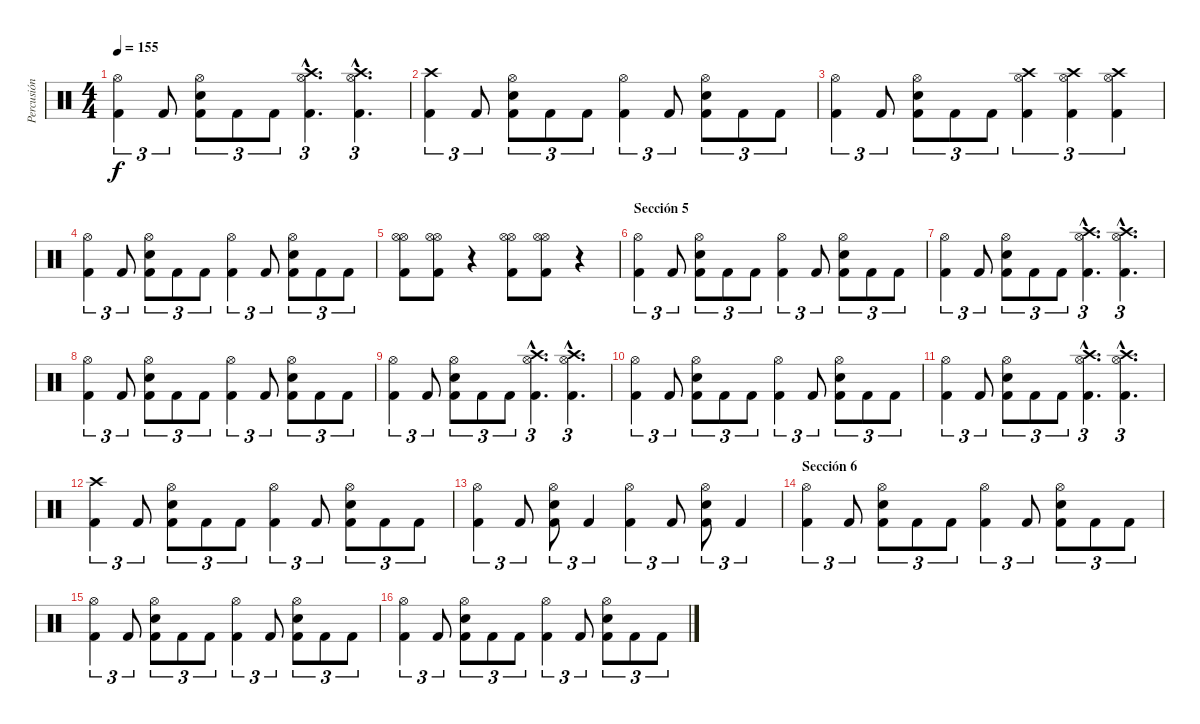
\track ("Percusión" "Percusión") {instrument percussion}
\staff {score}
\articulation defaults
\ts (4 4)
\tempo 155
\clef neutral
\ks c
("Hi-Hat (open)" "Kick (hit) 2").4{tu (3 2) dy f} "Kick (hit) 2".8{tu (3 2)} ("Hi-Hat (open)" "Electric Snare (hit)" "Kick (hit) 2").8{tu (3 2)} "Kick (hit) 2".8{tu (3 2)} "Kick (hit) 2".8{tu (3 2)} ("Hi-Hat (open)"{hac} "Crash high (hit)"{hac} "Kick (hit) 2"{hac}).4{d tu (3 2)} ("Hi-Hat (open)"{hac} "Crash high (hit)"{hac} "Kick (hit) 2"{hac}).4{d tu (3 2)} |
("Crash high (hit)" "Kick (hit) 2").4{tu (3 2)} "Kick (hit) 2".8{tu (3 2)} ("Hi-Hat (open)" "Electric Snare (hit)" "Kick (hit) 2").8{tu (3 2)} "Kick (hit) 2".8{tu (3 2)} "Kick (hit) 2".8{tu (3 2)} ("Hi-Hat (open)" "Kick (hit) 2").4{tu (3 2)} "Kick (hit) 2".8{tu (3 2)} ("Hi-Hat (open)" "Electric Snare (hit)" "Kick (hit) 2").8{tu (3 2)} "Kick (hit) 2".8{tu (3 2)} "Kick (hit) 2".8{tu (3 2)} |
("Hi-Hat (open)" "Kick (hit) 2").4{tu (3 2)} "Kick (hit) 2".8{tu (3 2)} ("Hi-Hat (open)" "Electric Snare (hit)" "Kick (hit) 2").8{tu (3 2)} "Kick (hit) 2".8{tu (3 2)} "Kick (hit) 2".8{tu (3 2)} ("Hi-Hat (open)" "Crash high (hit)" "Kick (hit) 2").4{tu (3 2)} ("Hi-Hat (open)" "Crash high (hit)" "Kick (hit) 2").4{tu (3 2)} ("Hi-Hat (open)" "Crash high (hit)" "Kick (hit) 2").4{tu (3 2)} |
("Hi-Hat (open)" "Kick (hit) 2").4{tu (3 2)} "Kick (hit) 2".8{tu (3 2)} ("Hi-Hat (open)" "Electric Snare (hit)" "Kick (hit) 2").8{tu (3 2)} "Kick (hit) 2".8{tu (3 2)} "Kick (hit) 2".8{tu (3 2)} ("Hi-Hat (open)" "Kick (hit) 2").4{tu (3 2)} "Kick (hit) 2".8{tu (3 2)} ("Hi-Hat (open)" "Electric Snare (hit)" "Kick (hit) 2").8{tu (3 2)} "Kick (hit) 2".8{tu (3 2)} "Kick (hit) 2".8{tu (3 2)} |
("Hi-Hat (open)" "Hi-Hat (open)" "Kick (hit) 2").8 ("Hi-Hat (open)" "Hi-Hat (open)" "Kick (hit) 2").8 r.4 ("Hi-Hat (open)" "Hi-Hat (open)" "Kick (hit) 2").8 ("Hi-Hat (open)" "Hi-Hat (open)" "Kick (hit) 2").8 r.4 |
\section ("" "Sección 5")
("Hi-Hat (open)" "Kick (hit) 2").4{tu (3 2)} "Kick (hit) 2".8{tu (3 2)} ("Hi-Hat (open)" "Electric Snare (hit)" "Kick (hit) 2").8{tu (3 2)} "Kick (hit) 2".8{tu (3 2)} "Kick (hit) 2".8{tu (3 2)} ("Hi-Hat (open)" "Kick (hit) 2").4{tu (3 2)} "Kick (hit) 2".8{tu (3 2)} ("Hi-Hat (open)" "Electric Snare (hit)" "Kick (hit) 2").8{tu (3 2)} "Kick (hit) 2".8{tu (3 2)} "Kick (hit) 2".8{tu (3 2)} |
("Hi-Hat (open)" "Kick (hit) 2").4{tu (3 2)} "Kick (hit) 2".8{tu (3 2)} ("Hi-Hat (open)" "Electric Snare (hit)" "Kick (hit) 2").8{tu (3 2)} "Kick (hit) 2".8{tu (3 2)} "Kick (hit) 2".8{tu (3 2)} ("Hi-Hat (open)"{hac} "Crash high (hit)"{hac} "Kick (hit) 2"{hac}).4{d tu (3 2)} ("Hi-Hat (open)"{hac} "Crash high (hit)"{hac} "Kick (hit) 2"{hac}).4{d tu (3 2)} |
("Hi-Hat (open)" "Kick (hit) 2").4{tu (3 2)} "Kick (hit) 2".8{tu (3 2)} ("Hi-Hat (open)" "Electric Snare (hit)" "Kick (hit) 2").8{tu (3 2)} "Kick (hit) 2".8{tu (3 2)} "Kick (hit) 2".8{tu (3 2)} ("Hi-Hat (open)" "Kick (hit) 2").4{tu (3 2)} "Kick (hit) 2".8{tu (3 2)} ("Hi-Hat (open)" "Electric Snare (hit)" "Kick (hit) 2").8{tu (3 2)} "Kick (hit) 2".8{tu (3 2)} "Kick (hit) 2".8{tu (3 2)} |
("Hi-Hat (open)" "Kick (hit) 2").4{tu (3 2)} "Kick (hit) 2".8{tu (3 2)} ("Hi-Hat (open)" "Electric Snare (hit)" "Kick (hit) 2").8{tu (3 2)} "Kick (hit) 2".8{tu (3 2)} "Kick (hit) 2".8{tu (3 2)} ("Hi-Hat (open)"{hac} "Crash high (hit)"{hac} "Kick (hit) 2"{hac}).4{d tu (3 2)} ("Hi-Hat (open)"{hac} "Crash high (hit)"{hac} "Kick (hit) 2"{hac}).4{d tu (3 2)} |
("Hi-Hat (open)" "Kick (hit) 2").4{tu (3 2)} "Kick (hit) 2".8{tu (3 2)} ("Hi-Hat (open)" "Electric Snare (hit)" "Kick (hit) 2").8{tu (3 2)} "Kick (hit) 2".8{tu (3 2)} "Kick (hit) 2".8{tu (3 2)} ("Hi-Hat (open)" "Kick (hit) 2").4{tu (3 2)} "Kick (hit) 2".8{tu (3 2)} ("Hi-Hat (open)" "Electric Snare (hit)" "Kick (hit) 2").8{tu (3 2)} "Kick (hit) 2".8{tu (3 2)} "Kick (hit) 2".8{tu (3 2)} |
("Hi-Hat (open)" "Kick (hit) 2").4{tu (3 2)} "Kick (hit) 2".8{tu (3 2)} ("Hi-Hat (open)" "Electric Snare (hit)" "Kick (hit) 2").8{tu (3 2)} "Kick (hit) 2".8{tu (3 2)} "Kick (hit) 2".8{tu (3 2)} ("Hi-Hat (open)"{hac} "Crash high (hit)"{hac} "Kick (hit) 2"{hac}).4{d tu (3 2)} ("Hi-Hat (open)"{hac} "Crash high (hit)"{hac} "Kick (hit) 2"{hac}).4{d tu (3 2)} |
("Crash high (hit)" "Kick (hit) 2").4{tu (3 2)} "Kick (hit) 2".8{tu (3 2)} ("Hi-Hat (open)" "Electric Snare (hit)" "Kick (hit) 2").8{tu (3 2)} "Kick (hit) 2".8{tu (3 2)} "Kick (hit) 2".8{tu (3 2)} ("Hi-Hat (open)" "Kick (hit) 2").4{tu (3 2)} "Kick (hit) 2".8{tu (3 2)} ("Hi-Hat (open)" "Electric Snare (hit)" "Kick (hit) 2").8{tu (3 2)} "Kick (hit) 2".8{tu (3 2)} "Kick (hit) 2".8{tu (3 2)} |
("Hi-Hat (open)" "Kick (hit) 2").4{tu (3 2)} "Kick (hit) 2".8{tu (3 2)} ("Hi-Hat (open)" "Electric Snare (hit)" "Kick (hit) 2").8{tu (3 2)} "Kick (hit) 2".4{tu (3 2)} ("Hi-Hat (open)" "Kick (hit) 2").4{tu (3 2)} "Kick (hit) 2".8{tu (3 2)} ("Hi-Hat (open)" "Electric Snare (hit)" "Kick (hit) 2").8{tu (3 2)} "Kick (hit) 2".4{tu (3 2)} |
\section ("" "Sección 6")
("Hi-Hat (open)" "Kick (hit) 2").4{tu (3 2)} "Kick (hit) 2".8{tu (3 2)} ("Hi-Hat (open)" "Electric Snare (hit)" "Kick (hit) 2").8{tu (3 2)} "Kick (hit) 2".8{tu (3 2)} "Kick (hit) 2".8{tu (3 2)} ("Hi-Hat (open)" "Kick (hit) 2").4{tu (3 2)} "Kick (hit) 2".8{tu (3 2)} ("Hi-Hat (open)" "Electric Snare (hit)" "Kick (hit) 2").8{tu (3 2)} "Kick (hit) 2".8{tu (3 2)} "Kick (hit) 2".8{tu (3 2)} |
("Hi-Hat (open)" "Kick (hit) 2").4{tu (3 2)} "Kick (hit) 2".8{tu (3 2)} ("Hi-Hat (open)" "Electric Snare (hit)" "Kick (hit) 2").8{tu (3 2)} "Kick (hit) 2".8{tu (3 2)} "Kick (hit) 2".8{tu (3 2)} ("Hi-Hat (open)" "Kick (hit) 2").4{tu (3 2)} "Kick (hit) 2".8{tu (3 2)} ("Hi-Hat (open)" "Electric Snare (hit)" "Kick (hit) 2").8{tu (3 2)} "Kick (hit) 2".8{tu (3 2)} "Kick (hit) 2".8{tu (3 2)} |
("Hi-Hat (open)" "Kick (hit) 2").4{tu (3 2)} "Kick (hit) 2".8{tu (3 2)} ("Hi-Hat (open)" "Electric Snare (hit)" "Kick (hit) 2").8{tu (3 2)} "Kick (hit) 2".8{tu (3 2)} "Kick (hit) 2".8{tu (3 2)} ("Hi-Hat (open)" "Kick (hit) 2").4{tu (3 2)} "Kick (hit) 2".8{tu (3 2)} ("Hi-Hat (open)" "Electric Snare (hit)" "Kick (hit) 2").8{tu (3 2)} "Kick (hit) 2".8{tu (3 2)} "Kick (hit) 2".8{tu (3 2)}
